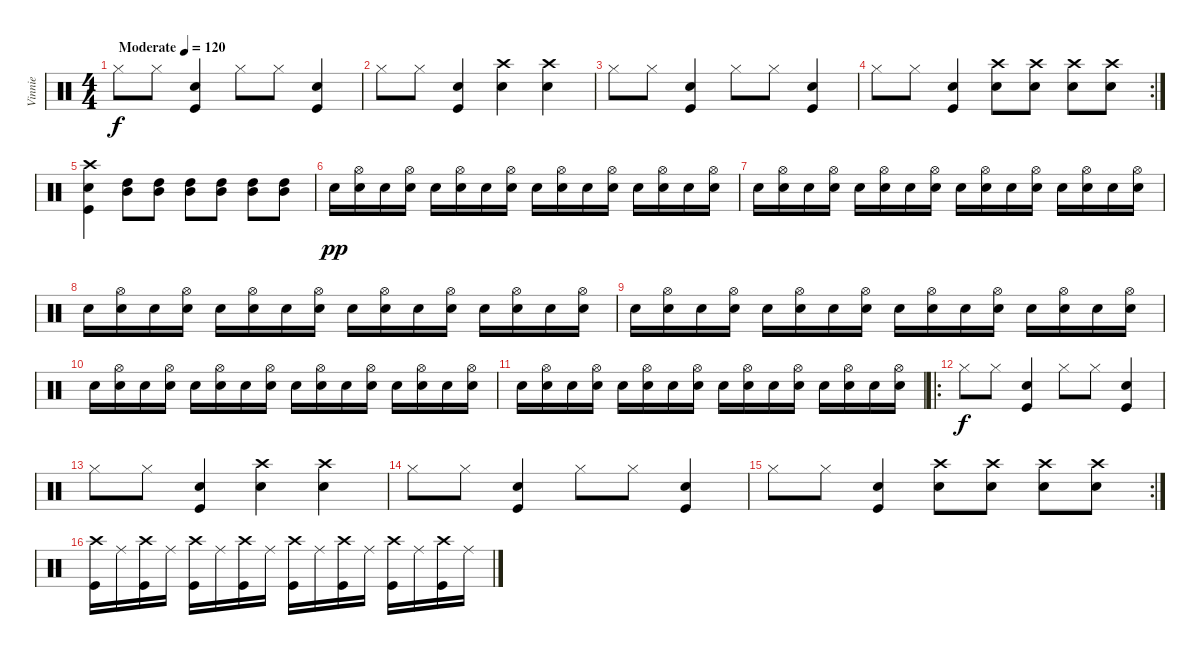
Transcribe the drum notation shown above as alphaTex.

\track ("Vinnie" "Vinnie") {instrument percussion}
\staff {score}
\articulation defaults
\ts (4 4)
\tempo (120 "Moderate")
\clef neutral
\ks c "Hi-Hat (closed)".8{dy f} "Hi-Hat (closed)".8
("Snare (hit) 2" "Kick (hit)").4 "Hi-Hat (closed)".8 "Hi-Hat (closed)".8 ("Snare (hit) 2" "Kick (hit)").4 |
"Hi-Hat (closed)".8 "Hi-Hat (closed)".8 ("Snare (hit) 2" "Kick (hit)").4 ("Crash high (hit)" "Snare (hit) 2").4 ("Crash high (hit)" "Snare (hit) 2").4 |
"Hi-Hat (closed)".8 "Hi-Hat (closed)".8 ("Snare (hit) 2" "Kick (hit)").4 "Hi-Hat (closed)".8 "Hi-Hat (closed)".8 ("Snare (hit) 2" "Kick (hit)").4 |
\rc 2 "Hi-Hat (closed)".8 "Hi-Hat (closed)".8
("Snare (hit) 2" "Kick (hit)").4 ("Snare (hit) 2" "Crash high (hit)").8 ("Crash high (hit)" "Snare (hit) 2").8 ("Crash high (hit)" "Snare (hit) 2").8 ("Crash high (hit)" "Snare (hit) 2").8 |
("Crash high (hit)" "Snare (hit) 2" "Kick (hit)").4 ("High Tom (hit)" "Mid Tom (hit)").8 ("High Tom (hit)" "Mid Tom (hit)").8 ("High Tom (hit)" "Mid Tom (hit)").8 ("High Tom (hit)" "Mid Tom (hit)").8 ("High Tom (hit)" "Mid Tom (hit)").8 ("High Tom (hit)" "Mid Tom (hit)").8 |
"Snare (hit) 2".16{dy pp} ("Snare (hit) 2" "Hi-Hat (open)").16 "Snare (hit) 2".16 ("Snare (hit) 2" "Hi-Hat (open)").16 "Snare (hit) 2".16 ("Snare (hit) 2" "Hi-Hat (open)").16 "Snare (hit) 2".16 ("Snare (hit) 2" "Hi-Hat (open)").16 "Snare (hit) 2".16 ("Snare (hit) 2" "Hi-Hat (open)").16 "Snare (hit) 2".16 ("Snare (hit) 2" "Hi-Hat (open)").16 "Snare (hit) 2".16 ("Snare (hit) 2" "Hi-Hat (open)").16 "Snare (hit) 2".16 ("Snare (hit) 2" "Hi-Hat (open)").16 |
"Snare (hit) 2".16 ("Snare (hit) 2" "Hi-Hat (open)").16 "Snare (hit) 2".16 ("Snare (hit) 2" "Hi-Hat (open)").16 "Snare (hit) 2".16 ("Snare (hit) 2" "Hi-Hat (open)").16 "Snare (hit) 2".16 ("Snare (hit) 2" "Hi-Hat (open)").16 "Snare (hit) 2".16 ("Snare (hit) 2" "Hi-Hat (open)").16 "Snare (hit) 2".16 ("Snare (hit) 2" "Hi-Hat (open)").16 "Snare (hit) 2".16 ("Snare (hit) 2" "Hi-Hat (open)").16 "Snare (hit) 2".16 ("Snare (hit) 2" "Hi-Hat (open)").16 |
"Snare (hit) 2".16 ("Snare (hit) 2" "Hi-Hat (open)").16 "Snare (hit) 2".16 ("Snare (hit) 2" "Hi-Hat (open)").16 "Snare (hit) 2".16 ("Snare (hit) 2" "Hi-Hat (open)").16 "Snare (hit) 2".16 ("Snare (hit) 2" "Hi-Hat (open)").16 "Snare (hit) 2".16 ("Snare (hit) 2" "Hi-Hat (open)").16 "Snare (hit) 2".16 ("Snare (hit) 2" "Hi-Hat (open)").16 "Snare (hit) 2".16 ("Snare (hit) 2" "Hi-Hat (open)").16 "Snare (hit) 2".16 ("Snare (hit) 2" "Hi-Hat (open)").16 |
"Snare (hit) 2".16 ("Snare (hit) 2" "Hi-Hat (open)").16 "Snare (hit) 2".16 ("Snare (hit) 2" "Hi-Hat (open)").16 "Snare (hit) 2".16 ("Snare (hit) 2" "Hi-Hat (open)").16 "Snare (hit) 2".16 ("Snare (hit) 2" "Hi-Hat (open)").16 "Snare (hit) 2".16 ("Snare (hit) 2" "Hi-Hat (open)").16 "Snare (hit) 2".16 ("Snare (hit) 2" "Hi-Hat (open)").16 "Snare (hit) 2".16 ("Snare (hit) 2" "Hi-Hat (open)").16 "Snare (hit) 2".16 ("Snare (hit) 2" "Hi-Hat (open)").16 |
"Snare (hit) 2".16 ("Snare (hit) 2" "Hi-Hat (open)").16 "Snare (hit) 2".16 ("Snare (hit) 2" "Hi-Hat (open)").16 "Snare (hit) 2".16 ("Snare (hit) 2" "Hi-Hat (open)").16 "Snare (hit) 2".16 ("Snare (hit) 2" "Hi-Hat (open)").16 "Snare (hit) 2".16 ("Snare (hit) 2" "Hi-Hat (open)").16 "Snare (hit) 2".16 ("Snare (hit) 2" "Hi-Hat (open)").16 "Snare (hit) 2".16 ("Snare (hit) 2" "Hi-Hat (open)").16 "Snare (hit) 2".16 ("Snare (hit) 2" "Hi-Hat (open)").16 |
"Snare (hit) 2".16 ("Snare (hit) 2" "Hi-Hat (open)").16 "Snare (hit) 2".16 ("Snare (hit) 2" "Hi-Hat (open)").16 "Snare (hit) 2".16 ("Snare (hit) 2" "Hi-Hat (open)").16 "Snare (hit) 2".16 ("Snare (hit) 2" "Hi-Hat (open)").16 "Snare (hit) 2".16 ("Snare (hit) 2" "Hi-Hat (open)").16 "Snare (hit) 2".16 ("Snare (hit) 2" "Hi-Hat (open)").16 "Snare (hit) 2".16 ("Snare (hit) 2" "Hi-Hat (open)").16 "Snare (hit) 2".16 ("Snare (hit) 2" "Hi-Hat (open)").16 |
\ro "Hi-Hat (closed)".8{dy f} "Hi-Hat (closed)".8
("Snare (hit) 2" "Kick (hit)").4 "Hi-Hat (closed)".8 "Hi-Hat (closed)".8 ("Snare (hit) 2" "Kick (hit)").4 |
"Hi-Hat (closed)".8 "Hi-Hat (closed)".8 ("Snare (hit) 2" "Kick (hit)").4 ("Crash high (hit)" "Snare (hit) 2").4 ("Crash high (hit)" "Snare (hit) 2").4 |
"Hi-Hat (closed)".8 "Hi-Hat (closed)".8 ("Snare (hit) 2" "Kick (hit)").4 "Hi-Hat (closed)".8 "Hi-Hat (closed)".8 ("Snare (hit) 2" "Kick (hit)").4 |
\rc 2 "Hi-Hat (closed)".8 "Hi-Hat (closed)".8
("Snare (hit) 2" "Kick (hit)").4 ("Snare (hit) 2" "Crash high (hit)").8 ("Crash high (hit)" "Snare (hit) 2").8 ("Crash high (hit)" "Snare (hit) 2").8 ("Crash high (hit)" "Snare (hit) 2").8 |
("Crash high (hit)" "Kick (hit)").16 "Ride (middle)".16 ("Crash high (hit)" "Kick (hit)").16 "Ride (middle)".16 ("Crash high (hit)" "Kick (hit)").16 "Ride (middle)".16 ("Crash high (hit)" "Kick (hit)").16 "Ride (middle)".16 ("Crash high (hit)" "Kick (hit)").16 "Ride (middle)".16 ("Crash high (hit)" "Kick (hit)").16 "Ride (middle)".16 ("Crash high (hit)" "Kick (hit)").16 "Ride (middle)".16 ("Crash high (hit)" "Kick (hit)").16 "Ride (middle)".16
